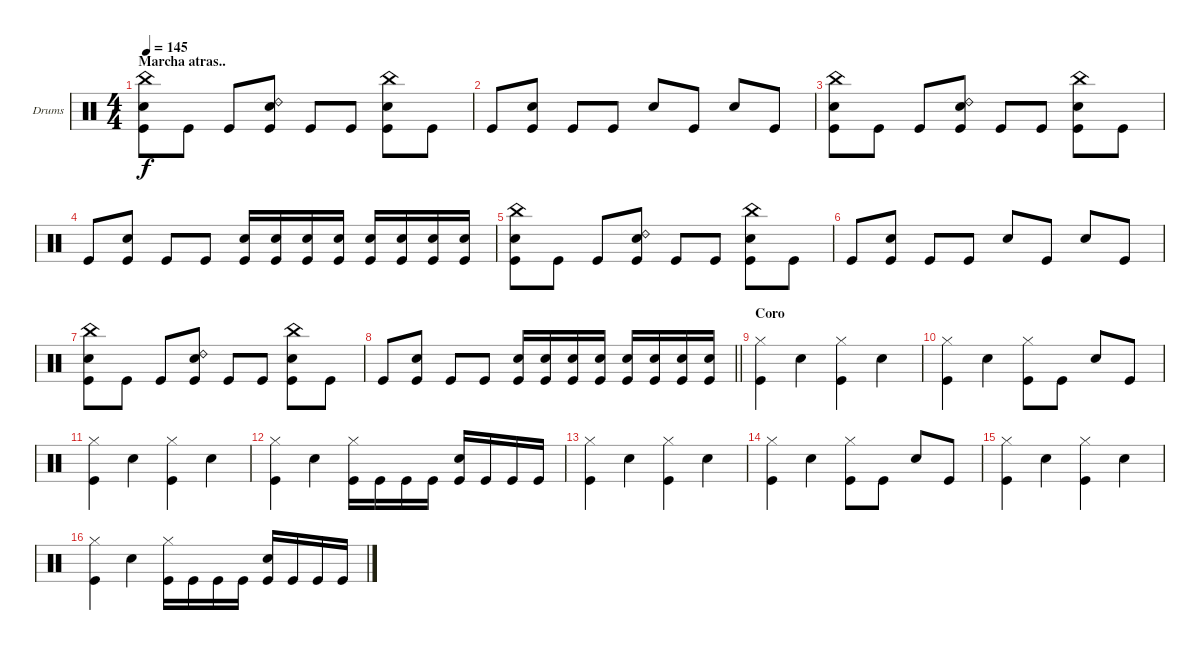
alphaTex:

\bracketExtendMode groupsimilarinstruments
\firstSystemTrackNameOrientation horizontal
\otherSystemsTrackNameOrientation horizontal
\track ("Drumkit" "Drums") {instrument percussion}
\staff {score}
\articulation defaults
\ts (4 4)
\section ("" "Marcha atras..")
\tempo 145
\clef neutral
\ks c
("China (hit)" "Snare (hit) 2" "Kick (hit)").8{dy f} "Kick (hit)".8 "Kick (hit)".8 ("Ride (bell) 2" "Snare (hit) 2" "Kick (hit)").8 "Kick (hit)".8 "Kick (hit)".8 ("China (hit)" "Snare (hit) 2" "Kick (hit)").8 "Kick (hit)".8 |
"Kick (hit)".8 ("Snare (hit) 2" "Kick (hit)").8 "Kick (hit)".8 "Kick (hit)".8 "Snare (hit) 2".8 "Kick (hit)".8 "Snare (hit) 2".8 "Kick (hit)".8 |
("China (hit)" "Snare (hit) 2" "Kick (hit)").8 "Kick (hit)".8 "Kick (hit)".8 ("Ride (bell) 2" "Snare (hit) 2" "Kick (hit)").8 "Kick (hit)".8 "Kick (hit)".8 ("China (hit)" "Snare (hit) 2" "Kick (hit)").8 "Kick (hit)".8 |
"Kick (hit)".8 ("Snare (hit) 2" "Kick (hit)").8 "Kick (hit)".8 "Kick (hit)".8 ("Snare (hit) 2" "Kick (hit)").16 ("Snare (hit) 2" "Kick (hit)").16 ("Snare (hit) 2" "Kick (hit)").16 ("Snare (hit) 2" "Kick (hit)").16 ("Snare (hit) 2" "Kick (hit)").16 ("Snare (hit) 2" "Kick (hit)").16 ("Snare (hit) 2" "Kick (hit)").16 ("Snare (hit) 2" "Kick (hit)").16 |
("China (hit)" "Snare (hit) 2" "Kick (hit)").8 "Kick (hit)".8 "Kick (hit)".8 ("Ride (bell) 2" "Snare (hit) 2" "Kick (hit)").8 "Kick (hit)".8 "Kick (hit)".8 ("China (hit)" "Snare (hit) 2" "Kick (hit)").8 "Kick (hit)".8 |
"Kick (hit)".8 ("Snare (hit) 2" "Kick (hit)").8 "Kick (hit)".8 "Kick (hit)".8 "Snare (hit) 2".8 "Kick (hit)".8 "Snare (hit) 2".8 "Kick (hit)".8 |
("China (hit)" "Snare (hit) 2" "Kick (hit)").8 "Kick (hit)".8 "Kick (hit)".8 ("Ride (bell) 2" "Snare (hit) 2" "Kick (hit)").8 "Kick (hit)".8 "Kick (hit)".8 ("China (hit)" "Snare (hit) 2" "Kick (hit)").8 "Kick (hit)".8 |
\barLineRight lightlight "Kick (hit)".8
("Snare (hit) 2" "Kick (hit)").8 "Kick (hit)".8 "Kick (hit)".8 ("Snare (hit) 2" "Kick (hit)").16 ("Snare (hit) 2" "Kick (hit)").16 ("Snare (hit) 2" "Kick (hit)").16 ("Snare (hit) 2" "Kick (hit)").16 ("Snare (hit) 2" "Kick (hit)").16 ("Snare (hit) 2" "Kick (hit)").16 ("Snare (hit) 2" "Kick (hit)").16 ("Snare (hit) 2" "Kick (hit)").16 |
\section ("" "Coro")
("Hi-Hat (closed)" "Kick (hit)").4 "Snare (hit) 2".4 ("Hi-Hat (closed)" "Kick (hit)").4 "Snare (hit) 2".4 |
("Hi-Hat (closed)" "Kick (hit)").4 "Snare (hit) 2".4 ("Hi-Hat (closed)" "Kick (hit)").8 "Kick (hit)".8 "Snare (hit) 2".8 "Kick (hit)".8 |
("Hi-Hat (closed)" "Kick (hit)").4 "Snare (hit) 2".4 ("Hi-Hat (closed)" "Kick (hit)").4 "Snare (hit) 2".4 |
("Hi-Hat (closed)" "Kick (hit)").4 "Snare (hit) 2".4 ("Hi-Hat (closed)" "Kick (hit)").16 "Kick (hit)".16 "Kick (hit)".16 "Kick (hit)".16 ("Snare (hit) 2" "Kick (hit)").16 "Kick (hit)".16 "Kick (hit)".16 "Kick (hit)".16 |
("Hi-Hat (closed)" "Kick (hit)").4 "Snare (hit) 2".4 ("Hi-Hat (closed)" "Kick (hit)").4 "Snare (hit) 2".4 |
("Hi-Hat (closed)" "Kick (hit)").4 "Snare (hit) 2".4 ("Hi-Hat (closed)" "Kick (hit)").8 "Kick (hit)".8 "Snare (hit) 2".8 "Kick (hit)".8 |
("Hi-Hat (closed)" "Kick (hit)").4 "Snare (hit) 2".4 ("Hi-Hat (closed)" "Kick (hit)").4 "Snare (hit) 2".4 |
("Hi-Hat (closed)" "Kick (hit)").4 "Snare (hit) 2".4 ("Hi-Hat (closed)" "Kick (hit)").16 "Kick (hit)".16 "Kick (hit)".16 "Kick (hit)".16 ("Snare (hit) 2" "Kick (hit)").16 "Kick (hit)".16 "Kick (hit)".16 "Kick (hit)".16
